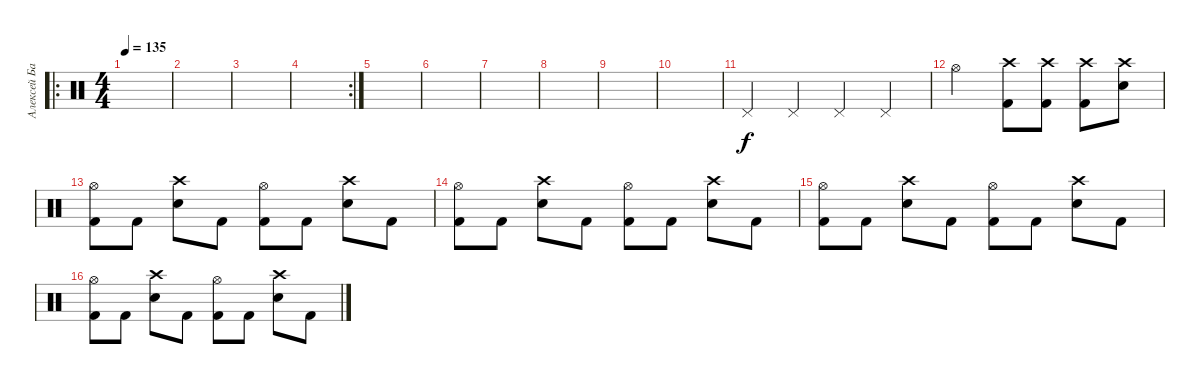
\track ("Алексей Барзилович" "Алексей Ба") {instrument percussion}
\staff {score}
\articulation defaults
\ro
\ts (4 4)
\tempo 135
\clef neutral
\ks c
|
|
|
\rc 2
|
|
|
|
|
|
|
"Pedal Hi-Hat (hit)".4 "Pedal Hi-Hat (hit)".4 "Pedal Hi-Hat (hit)".4 "Pedal Hi-Hat (hit)".4 |
"Hi-Hat (open)".2 ("Crash high (hit)" "Kick (hit) 2").8 ("Crash high (hit)" "Kick (hit) 2").8 ("Crash high (hit)" "Kick (hit) 2").8 ("Crash high (hit)" "Electric Snare (hit)").8 |
("Kick (hit) 2" "Hi-Hat (open)").8 "Kick (hit) 2".8 ("Electric Snare (hit)" "Crash high (hit)").8 "Kick (hit) 2".8 ("Kick (hit) 2" "Hi-Hat (open)").8 "Kick (hit) 2".8 ("Electric Snare (hit)" "Crash high (hit)").8 "Kick (hit) 2".8 |
("Kick (hit) 2" "Hi-Hat (open)").8 "Kick (hit) 2".8 ("Electric Snare (hit)" "Crash high (hit)").8 "Kick (hit) 2".8 ("Kick (hit) 2" "Hi-Hat (open)").8 "Kick (hit) 2".8 ("Electric Snare (hit)" "Crash high (hit)").8 "Kick (hit) 2".8 |
("Kick (hit) 2" "Hi-Hat (open)").8 "Kick (hit) 2".8 ("Electric Snare (hit)" "Crash high (hit)").8 "Kick (hit) 2".8 ("Kick (hit) 2" "Hi-Hat (open)").8 "Kick (hit) 2".8 ("Electric Snare (hit)" "Crash high (hit)").8 "Kick (hit) 2".8 |
("Kick (hit) 2" "Hi-Hat (open)").8 "Kick (hit) 2".8 ("Electric Snare (hit)" "Crash high (hit)").8 "Kick (hit) 2".8 ("Kick (hit) 2" "Hi-Hat (open)").8 "Kick (hit) 2".8 ("Electric Snare (hit)" "Crash high (hit)").8 "Kick (hit) 2".8
